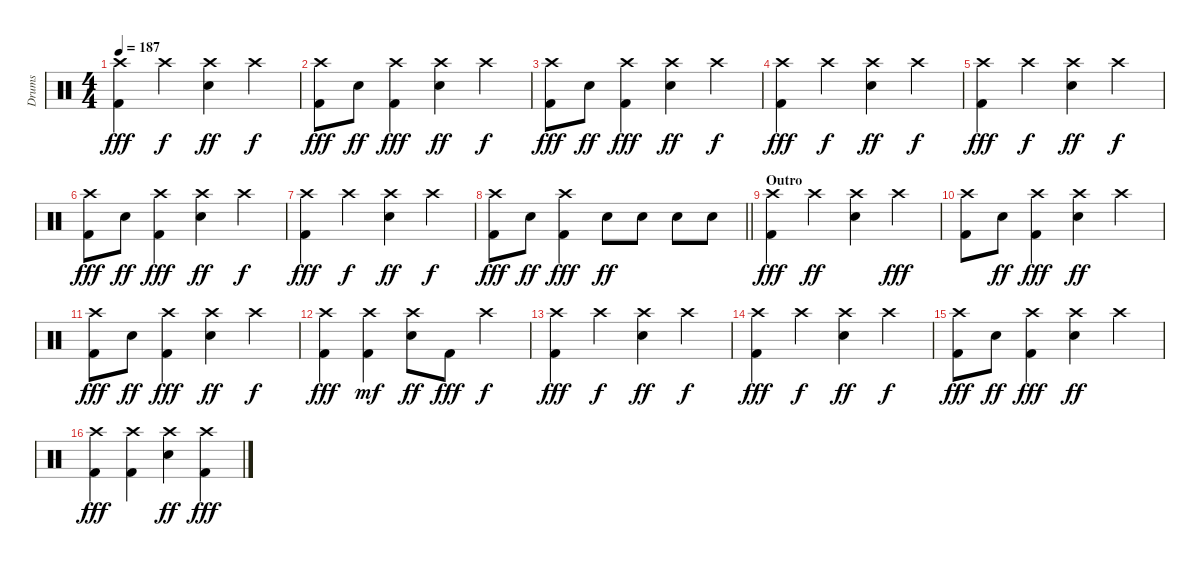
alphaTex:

\track ("Drums" "Drums") {instrument percussion}
\staff {score}
\articulation defaults
\ts (4 4)
\tempo 187
\clef neutral
\ks c
("Crash high (hit)" "Kick (hit) 2").4{dy fff} "Crash high (hit)".4{dy f} ("Crash high (hit)" "Snare (hit) 2").4{dy ff} "Crash high (hit)".4{dy f} |
("Crash high (hit)" "Kick (hit) 2").8{dy fff} "Snare (hit) 2".8{dy ff} ("Crash high (hit)" "Kick (hit) 2").4{dy fff} ("Crash high (hit)" "Snare (hit) 2").4{dy ff} "Crash high (hit)".4{dy f} |
("Crash high (hit)" "Kick (hit) 2").8{dy fff} "Snare (hit) 2".8{dy ff} ("Crash high (hit)" "Kick (hit) 2").4{dy fff} ("Crash high (hit)" "Snare (hit) 2").4{dy ff} "Crash high (hit)".4{dy f} |
("Crash high (hit)" "Kick (hit) 2").4{dy fff} "Crash high (hit)".4{dy f} ("Crash high (hit)" "Snare (hit) 2").4{dy ff} "Crash high (hit)".4{dy f} |
("Crash high (hit)" "Kick (hit) 2").4{dy fff} "Crash high (hit)".4{dy f} ("Crash high (hit)" "Snare (hit) 2").4{dy ff} "Crash high (hit)".4{dy f} |
("Crash high (hit)" "Kick (hit) 2").8{dy fff} "Snare (hit) 2".8{dy ff} ("Crash high (hit)" "Kick (hit) 2").4{dy fff} ("Crash high (hit)" "Snare (hit) 2").4{dy ff} "Crash high (hit)".4{dy f} |
("Crash high (hit)" "Kick (hit) 2").4{dy fff} "Crash high (hit)".4{dy f} ("Crash high (hit)" "Snare (hit) 2").4{dy ff} "Crash high (hit)".4{dy f} |
\barLineRight lightlight
("Crash high (hit)" "Kick (hit) 2").8{dy fff} "Snare (hit) 2".8{dy ff} ("Crash high (hit)" "Kick (hit) 2").4{dy fff} "Snare (hit) 2".8{dy ff} "Snare (hit) 2".8 "Snare (hit) 2".8 "Snare (hit) 2".8 |
\section ("" "Outro")
("Crash high (hit)" "Kick (hit) 2").4{dy fff volume 12} "Crash high (hit)".4{dy ff} ("Crash high (hit)" "Snare (hit) 2").4 "Crash high (hit)".4{dy fff} |
("Crash high (hit)" "Kick (hit) 2").8 "Snare (hit) 2".8{dy ff} ("Crash high (hit)" "Kick (hit) 2").4{dy fff} ("Crash high (hit)" "Snare (hit) 2").4{dy ff} "Crash high (hit)".4 |
("Crash high (hit)" "Kick (hit) 2").8{dy fff} "Snare (hit) 2".8{dy ff} ("Crash high (hit)" "Kick (hit) 2").4{dy fff} ("Crash high (hit)" "Snare (hit) 2").4{dy ff} "Crash high (hit)".4{dy f} |
("Crash high (hit)" "Kick (hit) 2").4{dy fff} ("Crash high (hit)" "Kick (hit) 2").4{dy mf} ("Crash high (hit)" "Snare (hit) 2").8{dy ff} "Kick (hit) 2".8{dy fff} "Crash high (hit)".4{dy f} |
("Crash high (hit)" "Kick (hit) 2").4{dy fff} "Crash high (hit)".4{dy f} ("Crash high (hit)" "Snare (hit) 2").4{dy ff} "Crash high (hit)".4{dy f} |
("Crash high (hit)" "Kick (hit) 2").4{dy fff} "Crash high (hit)".4{dy f} ("Crash high (hit)" "Snare (hit) 2").4{dy ff} "Crash high (hit)".4{dy f} |
("Crash high (hit)" "Kick (hit) 2").8{dy fff} "Snare (hit) 2".8{dy ff} ("Crash high (hit)" "Kick (hit) 2").4{dy fff} ("Crash high (hit)" "Snare (hit) 2").4{dy ff} "Crash high (hit)".4 |
("Crash high (hit)" "Kick (hit) 2").4{dy fff} ("Crash high (hit)" "Kick (hit) 2").4 ("Crash high (hit)" "Snare (hit) 2").4{dy ff} ("Crash high (hit)" "Kick (hit) 2").4{dy fff}
